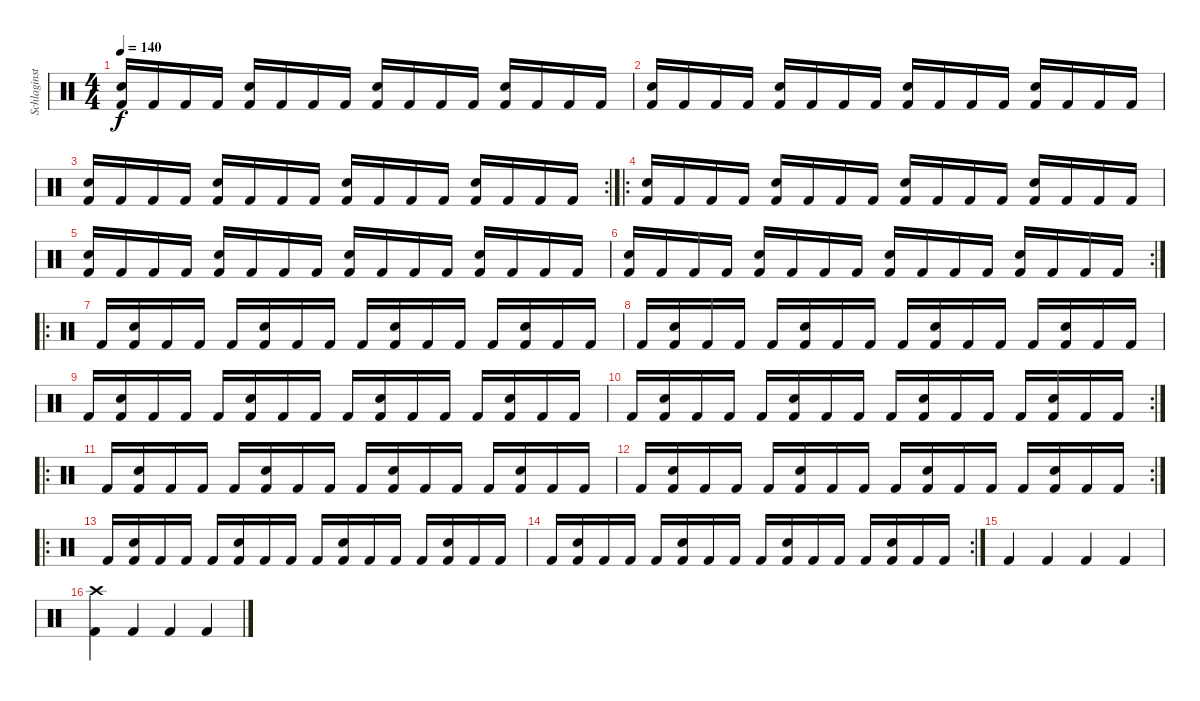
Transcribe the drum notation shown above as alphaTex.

\track ("Schlaginstrumente - Auswahl" "Schlaginst") {instrument percussion}
\staff {score}
\articulation defaults
\ts (4 4)
\tempo 140
\clef neutral
\ks c
("Kick (hit) 2" "Snare (hit) 2").16{dy f} "Kick (hit) 2".16 "Kick (hit) 2".16 "Kick (hit) 2".16 ("Kick (hit) 2" "Snare (hit) 2").16 "Kick (hit) 2".16 "Kick (hit) 2".16 "Kick (hit) 2".16 ("Kick (hit) 2" "Snare (hit) 2").16 "Kick (hit) 2".16 "Kick (hit) 2".16 "Kick (hit) 2".16 ("Kick (hit) 2" "Snare (hit) 2").16 "Kick (hit) 2".16 "Kick (hit) 2".16 "Kick (hit) 2".16 |
("Kick (hit) 2" "Snare (hit) 2").16 "Kick (hit) 2".16 "Kick (hit) 2".16 "Kick (hit) 2".16 ("Kick (hit) 2" "Snare (hit) 2").16 "Kick (hit) 2".16 "Kick (hit) 2".16 "Kick (hit) 2".16 ("Kick (hit) 2" "Snare (hit) 2").16 "Kick (hit) 2".16 "Kick (hit) 2".16 "Kick (hit) 2".16 ("Kick (hit) 2" "Snare (hit) 2").16 "Kick (hit) 2".16 "Kick (hit) 2".16 "Kick (hit) 2".16 |
\rc 2
("Kick (hit) 2" "Snare (hit) 2").16 "Kick (hit) 2".16 "Kick (hit) 2".16 "Kick (hit) 2".16 ("Kick (hit) 2" "Snare (hit) 2").16 "Kick (hit) 2".16 "Kick (hit) 2".16 "Kick (hit) 2".16 ("Kick (hit) 2" "Snare (hit) 2").16 "Kick (hit) 2".16 "Kick (hit) 2".16 "Kick (hit) 2".16 ("Kick (hit) 2" "Snare (hit) 2").16 "Kick (hit) 2".16 "Kick (hit) 2".16 "Kick (hit) 2".16 |
\ro
("Kick (hit) 2" "Snare (hit) 2").16 "Kick (hit) 2".16 "Kick (hit) 2".16 "Kick (hit) 2".16 ("Kick (hit) 2" "Snare (hit) 2").16 "Kick (hit) 2".16 "Kick (hit) 2".16 "Kick (hit) 2".16 ("Kick (hit) 2" "Snare (hit) 2").16 "Kick (hit) 2".16 "Kick (hit) 2".16 "Kick (hit) 2".16 ("Kick (hit) 2" "Snare (hit) 2").16 "Kick (hit) 2".16 "Kick (hit) 2".16 "Kick (hit) 2".16 |
("Kick (hit) 2" "Snare (hit) 2").16 "Kick (hit) 2".16 "Kick (hit) 2".16 "Kick (hit) 2".16 ("Kick (hit) 2" "Snare (hit) 2").16 "Kick (hit) 2".16 "Kick (hit) 2".16 "Kick (hit) 2".16 ("Kick (hit) 2" "Snare (hit) 2").16 "Kick (hit) 2".16 "Kick (hit) 2".16 "Kick (hit) 2".16 ("Kick (hit) 2" "Snare (hit) 2").16 "Kick (hit) 2".16 "Kick (hit) 2".16 "Kick (hit) 2".16 |
\rc 2
("Kick (hit) 2" "Snare (hit) 2").16 "Kick (hit) 2".16 "Kick (hit) 2".16 "Kick (hit) 2".16 ("Kick (hit) 2" "Snare (hit) 2").16 "Kick (hit) 2".16 "Kick (hit) 2".16 "Kick (hit) 2".16 ("Kick (hit) 2" "Snare (hit) 2").16 "Kick (hit) 2".16 "Kick (hit) 2".16 "Kick (hit) 2".16 ("Kick (hit) 2" "Snare (hit) 2").16 "Kick (hit) 2".16 "Kick (hit) 2".16 "Kick (hit) 2".16 |
\ro "Kick (hit) 2".16
("Kick (hit) 2" "Electric Snare (hit)").16 "Kick (hit) 2".16 "Kick (hit) 2".16 "Kick (hit) 2".16 ("Kick (hit) 2" "Electric Snare (hit)").16 "Kick (hit) 2".16 "Kick (hit) 2".16 "Kick (hit) 2".16 ("Kick (hit) 2" "Electric Snare (hit)").16 "Kick (hit) 2".16 "Kick (hit) 2".16 "Kick (hit) 2".16 ("Kick (hit) 2" "Electric Snare (hit)").16 "Kick (hit) 2".16 "Kick (hit) 2".16 |
"Kick (hit) 2".16 ("Kick (hit) 2" "Electric Snare (hit)").16 "Kick (hit) 2".16 "Kick (hit) 2".16 "Kick (hit) 2".16 ("Kick (hit) 2" "Electric Snare (hit)").16 "Kick (hit) 2".16 "Kick (hit) 2".16 "Kick (hit) 2".16 ("Kick (hit) 2" "Electric Snare (hit)").16 "Kick (hit) 2".16 "Kick (hit) 2".16 "Kick (hit) 2".16 ("Kick (hit) 2" "Electric Snare (hit)").16 "Kick (hit) 2".16 "Kick (hit) 2".16 |
"Kick (hit) 2".16 ("Kick (hit) 2" "Electric Snare (hit)").16 "Kick (hit) 2".16 "Kick (hit) 2".16 "Kick (hit) 2".16 ("Kick (hit) 2" "Electric Snare (hit)").16 "Kick (hit) 2".16 "Kick (hit) 2".16 "Kick (hit) 2".16 ("Kick (hit) 2" "Electric Snare (hit)").16 "Kick (hit) 2".16 "Kick (hit) 2".16 "Kick (hit) 2".16 ("Kick (hit) 2" "Electric Snare (hit)").16 "Kick (hit) 2".16 "Kick (hit) 2".16 |
\rc 2 "Kick (hit) 2".16
("Kick (hit) 2" "Electric Snare (hit)").16 "Kick (hit) 2".16 "Kick (hit) 2".16 "Kick (hit) 2".16 ("Kick (hit) 2" "Electric Snare (hit)").16 "Kick (hit) 2".16 "Kick (hit) 2".16 "Kick (hit) 2".16 ("Kick (hit) 2" "Electric Snare (hit)").16 "Kick (hit) 2".16 "Kick (hit) 2".16 "Kick (hit) 2".16 ("Kick (hit) 2" "Electric Snare (hit)").16 "Kick (hit) 2".16 "Kick (hit) 2".16 |
\ro "Kick (hit) 2".16
("Kick (hit) 2" "Electric Snare (hit)").16 "Kick (hit) 2".16 "Kick (hit) 2".16 "Kick (hit) 2".16 ("Kick (hit) 2" "Electric Snare (hit)").16 "Kick (hit) 2".16 "Kick (hit) 2".16 "Kick (hit) 2".16 ("Kick (hit) 2" "Electric Snare (hit)").16 "Kick (hit) 2".16 "Kick (hit) 2".16 "Kick (hit) 2".16 ("Kick (hit) 2" "Electric Snare (hit)").16 "Kick (hit) 2".16 "Kick (hit) 2".16 |
\rc 2 "Kick (hit) 2".16
("Kick (hit) 2" "Electric Snare (hit)").16 "Kick (hit) 2".16 "Kick (hit) 2".16 "Kick (hit) 2".16 ("Kick (hit) 2" "Electric Snare (hit)").16 "Kick (hit) 2".16 "Kick (hit) 2".16 "Kick (hit) 2".16 ("Kick (hit) 2" "Electric Snare (hit)").16 "Kick (hit) 2".16 "Kick (hit) 2".16 "Kick (hit) 2".16 ("Kick (hit) 2" "Electric Snare (hit)").16 "Kick (hit) 2".16 "Kick (hit) 2".16 |
\ro "Kick (hit) 2".16
("Kick (hit) 2" "Electric Snare (hit)").16 "Kick (hit) 2".16 "Kick (hit) 2".16 "Kick (hit) 2".16 ("Kick (hit) 2" "Electric Snare (hit)").16 "Kick (hit) 2".16 "Kick (hit) 2".16 "Kick (hit) 2".16 ("Kick (hit) 2" "Electric Snare (hit)").16 "Kick (hit) 2".16 "Kick (hit) 2".16 "Kick (hit) 2".16 ("Kick (hit) 2" "Electric Snare (hit)").16 "Kick (hit) 2".16 "Kick (hit) 2".16 |
\rc 2 "Kick (hit) 2".16
("Kick (hit) 2" "Electric Snare (hit)").16 "Kick (hit) 2".16 "Kick (hit) 2".16 "Kick (hit) 2".16 ("Kick (hit) 2" "Electric Snare (hit)").16 "Kick (hit) 2".16 "Kick (hit) 2".16 "Kick (hit) 2".16 ("Kick (hit) 2" "Electric Snare (hit)").16 "Kick (hit) 2".16 "Kick (hit) 2".16 "Kick (hit) 2".16 ("Kick (hit) 2" "Electric Snare (hit)").16 "Kick (hit) 2".16 "Kick (hit) 2".16 |
"Kick (hit) 2".4 "Kick (hit) 2".4 "Kick (hit) 2".4 "Kick (hit) 2".4 |
("Kick (hit) 2" "Crash high (hit)").4 "Kick (hit) 2".4 "Kick (hit) 2".4 "Kick (hit) 2".4
